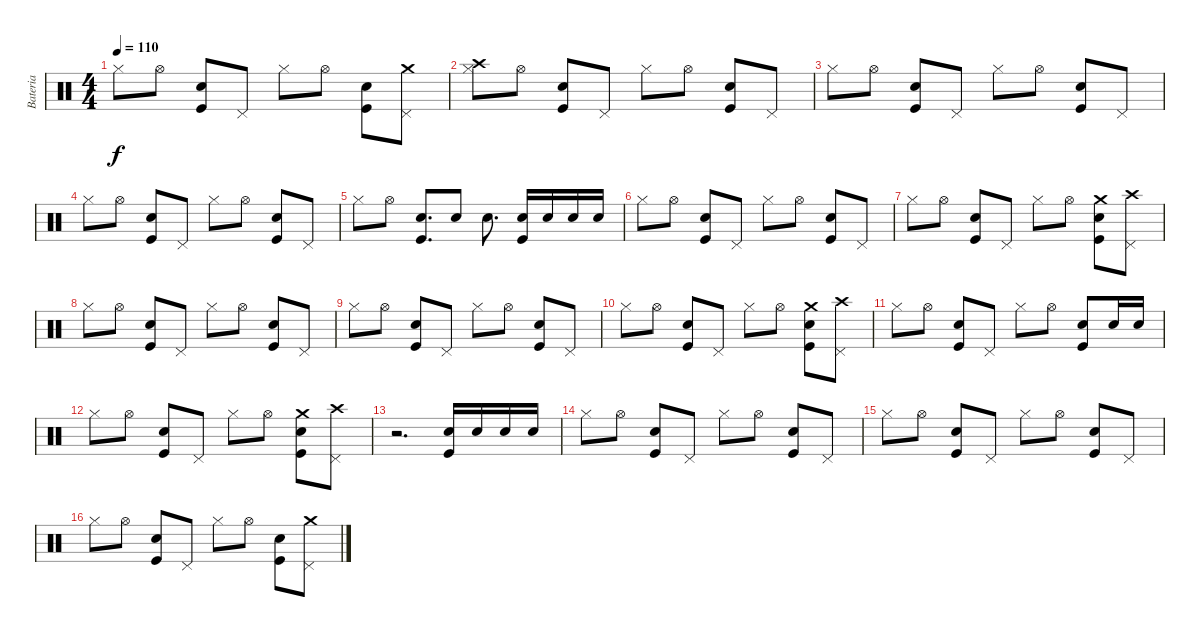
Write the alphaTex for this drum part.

\track ("Bateria" "Bateria") {instrument percussion}
\staff {score}
\articulation defaults
\ts (4 4)
\tempo 110
\clef neutral
\ks c "Hi-Hat (closed)".8{dy f} "Hi-Hat (open)".8
("Electric Snare (hit)" "Kick (hit)").8 "Pedal Hi-Hat (hit)".8 "Hi-Hat (closed)".8 "Hi-Hat (open)".8 ("Electric Snare (hit)" "Kick (hit)").8 ("Crash medium (hit)" "Pedal Hi-Hat (hit)").8 |
("Crash high (hit)" "Hi-Hat (closed)").8 "Hi-Hat (open)".8 ("Electric Snare (hit)" "Kick (hit)").8 "Pedal Hi-Hat (hit)".8 "Hi-Hat (closed)".8 "Hi-Hat (open)".8 ("Electric Snare (hit)" "Kick (hit)").8 "Pedal Hi-Hat (hit)".8 |
"Hi-Hat (closed)".8 "Hi-Hat (open)".8 ("Electric Snare (hit)" "Kick (hit)").8 "Pedal Hi-Hat (hit)".8 "Hi-Hat (closed)".8 "Hi-Hat (open)".8 ("Electric Snare (hit)" "Kick (hit)").8 "Pedal Hi-Hat (hit)".8 |
"Hi-Hat (closed)".8 "Hi-Hat (open)".8 ("Electric Snare (hit)" "Kick (hit)").8 "Pedal Hi-Hat (hit)".8 "Hi-Hat (closed)".8 "Hi-Hat (open)".8 ("Electric Snare (hit)" "Kick (hit)").8 "Pedal Hi-Hat (hit)".8 |
"Hi-Hat (closed)".8 "Hi-Hat (open)".8 ("Electric Snare (hit)" "Kick (hit)").8{d} "Electric Snare (hit)".8 "Electric Snare (hit)".8{d} ("Electric Snare (hit)" "Kick (hit)").16 "Electric Snare (hit)".16 "Electric Snare (hit)".16 "Electric Snare (hit)".16 |
"Hi-Hat (closed)".8 "Hi-Hat (open)".8 ("Electric Snare (hit)" "Kick (hit)").8 "Pedal Hi-Hat (hit)".8 "Hi-Hat (closed)".8 "Hi-Hat (open)".8 ("Electric Snare (hit)" "Kick (hit)").8 "Pedal Hi-Hat (hit)".8 |
"Hi-Hat (closed)".8 "Hi-Hat (open)".8 ("Electric Snare (hit)" "Kick (hit)").8 "Pedal Hi-Hat (hit)".8 "Hi-Hat (closed)".8 "Hi-Hat (open)".8 ("Crash medium (hit)" "Electric Snare (hit)" "Kick (hit)").8 ("Crash high (hit)" "Pedal Hi-Hat (hit)").8 |
"Hi-Hat (closed)".8 "Hi-Hat (open)".8 ("Electric Snare (hit)" "Kick (hit)").8 "Pedal Hi-Hat (hit)".8 "Hi-Hat (closed)".8 "Hi-Hat (open)".8 ("Electric Snare (hit)" "Kick (hit)").8 "Pedal Hi-Hat (hit)".8 |
"Hi-Hat (closed)".8 "Hi-Hat (open)".8 ("Electric Snare (hit)" "Kick (hit)").8 "Pedal Hi-Hat (hit)".8 "Hi-Hat (closed)".8 "Hi-Hat (open)".8 ("Electric Snare (hit)" "Kick (hit)").8 "Pedal Hi-Hat (hit)".8 |
"Hi-Hat (closed)".8 "Hi-Hat (open)".8 ("Electric Snare (hit)" "Kick (hit)").8 "Pedal Hi-Hat (hit)".8 "Hi-Hat (closed)".8 "Hi-Hat (open)".8 ("Crash medium (hit)" "Electric Snare (hit)" "Kick (hit)").8 ("Crash high (hit)" "Pedal Hi-Hat (hit)").8 |
"Hi-Hat (closed)".8 "Hi-Hat (open)".8 ("Electric Snare (hit)" "Kick (hit)").8 "Pedal Hi-Hat (hit)".8 "Hi-Hat (closed)".8 "Hi-Hat (open)".8 ("Electric Snare (hit)" "Kick (hit)").8 "Electric Snare (hit)".16 "Electric Snare (hit)".16 |
"Hi-Hat (closed)".8 "Hi-Hat (open)".8 ("Electric Snare (hit)" "Kick (hit)").8 "Pedal Hi-Hat (hit)".8 "Hi-Hat (closed)".8 "Hi-Hat (open)".8 ("Crash medium (hit)" "Electric Snare (hit)" "Kick (hit)").8 ("Crash high (hit)" "Pedal Hi-Hat (hit)").8 |
r.2{d} ("Electric Snare (hit)" "Kick (hit)").16 "Electric Snare (hit)".16 "Electric Snare (hit)".16 "Electric Snare (hit)".16 |
"Hi-Hat (closed)".8 "Hi-Hat (open)".8 ("Electric Snare (hit)" "Kick (hit)").8 "Pedal Hi-Hat (hit)".8 "Hi-Hat (closed)".8 "Hi-Hat (open)".8 ("Electric Snare (hit)" "Kick (hit)").8 "Pedal Hi-Hat (hit)".8 |
"Hi-Hat (closed)".8 "Hi-Hat (open)".8 ("Electric Snare (hit)" "Kick (hit)").8 "Pedal Hi-Hat (hit)".8 "Hi-Hat (closed)".8 "Hi-Hat (open)".8 ("Electric Snare (hit)" "Kick (hit)").8 "Pedal Hi-Hat (hit)".8 |
"Hi-Hat (closed)".8 "Hi-Hat (open)".8 ("Electric Snare (hit)" "Kick (hit)").8 "Pedal Hi-Hat (hit)".8 "Hi-Hat (closed)".8 "Hi-Hat (open)".8 ("Electric Snare (hit)" "Kick (hit)").8 ("Crash medium (hit)" "Pedal Hi-Hat (hit)").8
